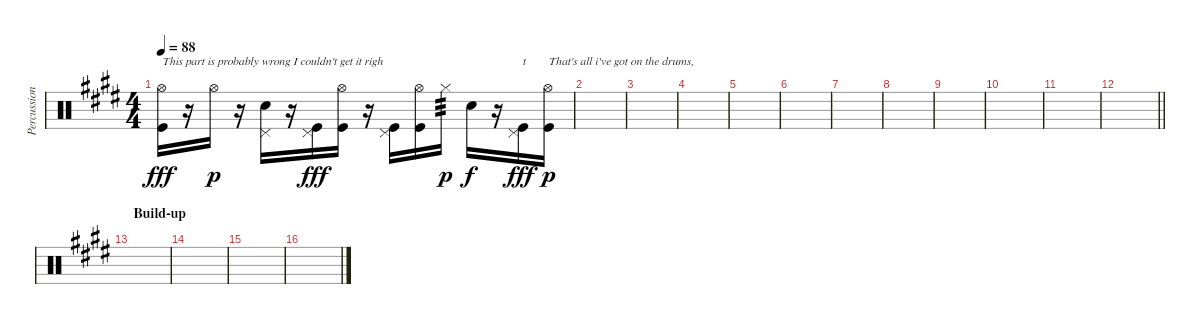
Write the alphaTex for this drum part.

\track ("Percussion" "Percussion") {instrument percussion}
\staff {score}
\articulation defaults
\ts (4 4)
\tempo 88
\clef neutral
\ks c#minor
("Hi-Hat (open)" "Kick (hit)").16{txt "This part is probably wrong I couldn't get it righ" dy fff} r.16 "Hi-Hat (open)".16{dy p} r.16 ("Pedal Hi-Hat (hit)" "Electric Snare (hit)").16 r.16 ("Pedal Hi-Hat (hit)" "Kick (hit)").16{dy fff} ("Hi-Hat (open)" "Kick (hit)").16 r.16 ("Pedal Hi-Hat (hit)" "Kick (hit)").16 ("Hi-Hat (open)" "Kick (hit)").16 "Hi-Hat (closed)".16{tp 3 dy p} "Electric Snare (hit)".16{dy f} r.16 ("Pedal Hi-Hat (hit)" "Kick (hit)").16{txt "t" dy fff} ("Hi-Hat (open)" "Kick (hit)").16{txt "That's all i've got on the drums," dy p} |
|
\ks e
|
\ks c#minor
|
|
\ks e
|
\ks c#minor
|
|
\ks e
|
\ks c#minor
|
|
\barLineRight lightlight
\ks e
|
\section ("" "Build-up")
\ks c#minor
|
|
\ks e
|
\ks c#minor
